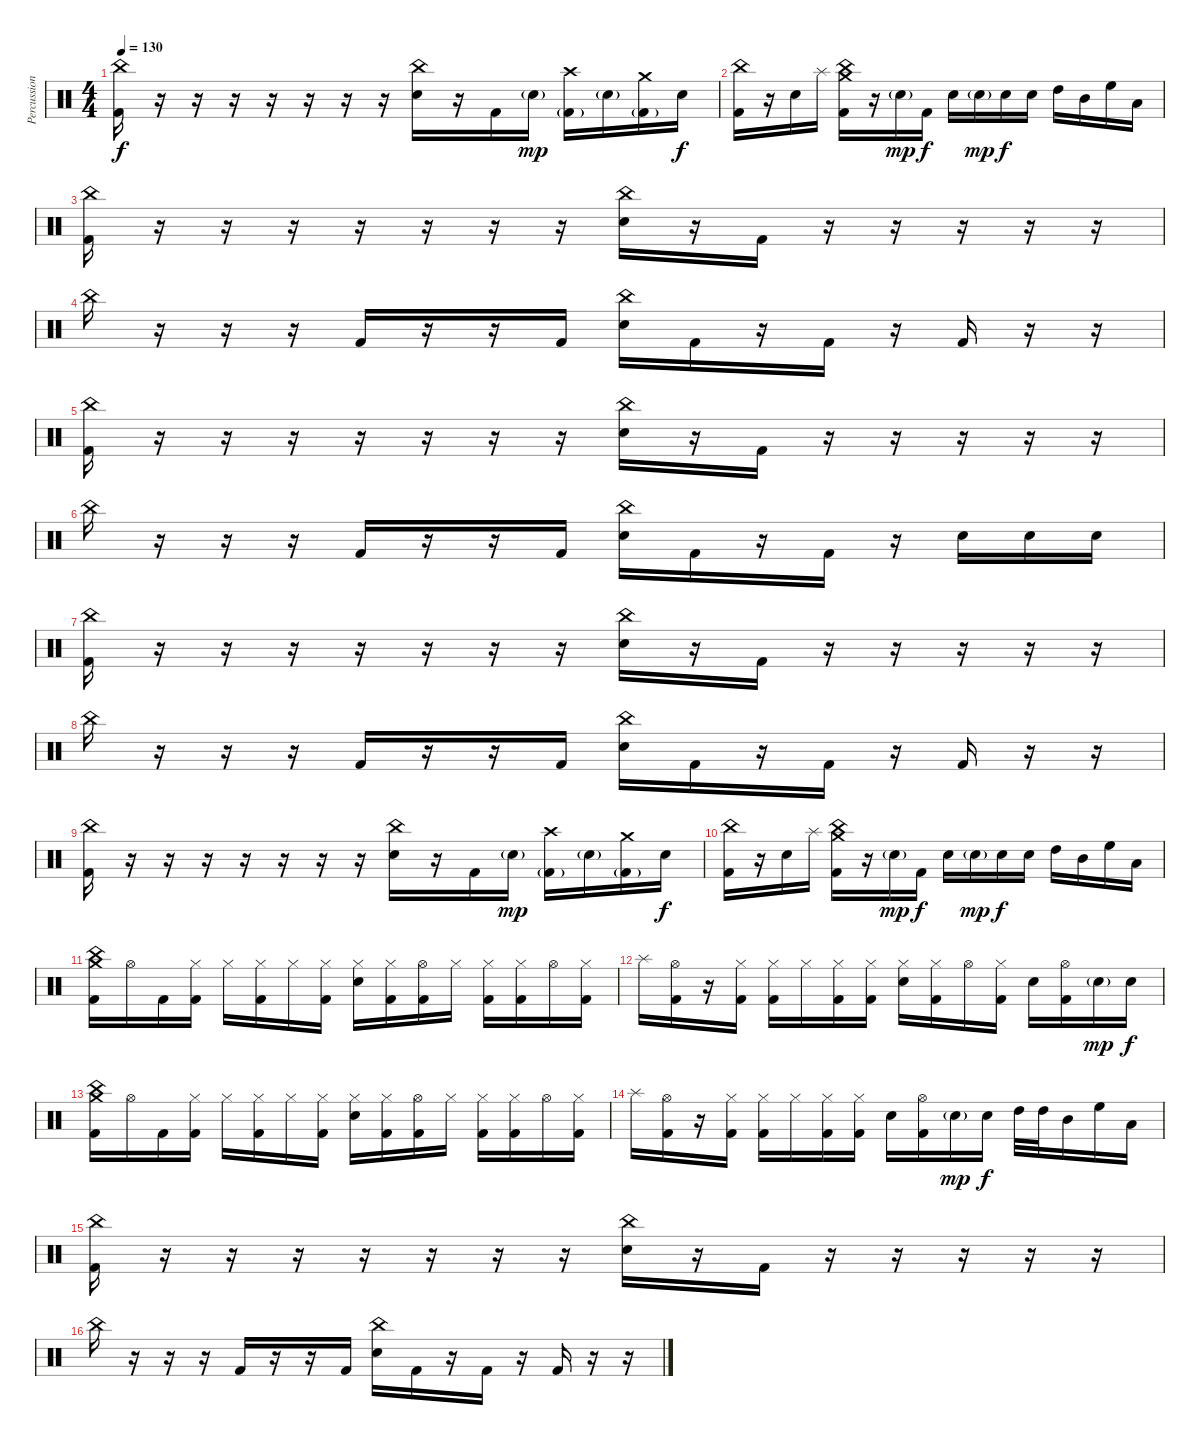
\track ("Percussion" "Percussion") {instrument percussion}
\staff {score}
\articulation defaults
\ts (4 4)
\tempo 130
\clef neutral
\ks c
("China (hit)" "Kick (hit) 2").16{dy f} r.16 r.16 r.16 r.16 r.16 r.16 r.16 ("China (hit)" "Snare (hit) 2").16 r.16 "Kick (hit) 2".16 "Snare (hit) 2"{g}.16{dy mp} ("Crash high (hit)" "Kick (hit) 2"{g}).16 "Snare (hit) 2"{g}.16 ("Crash medium (hit)" "Kick (hit) 2"{g}).16 "Snare (hit) 2".16{dy f} |
("China (hit)" "Kick (hit) 2").16 r.16 "Snare (hit) 2".16 "Splash (hit)".16 ("Crash medium (hit)" "China (hit)" "Kick (hit) 2").16 r.16 "Snare (hit) 2"{g}.16{dy mp} "Kick (hit) 2".16{dy f} "Snare (hit) 2".16 "Snare (hit) 2"{g}.16{dy mp} "Snare (hit) 2".16{dy f} "Snare (hit) 2".16 "High Tom (hit)".16 "Mid Tom (hit)".16 "High Floor Tom (hit)".16 "Low Tom (hit)".16 |
("China (hit)" "Kick (hit) 2").16 r.16 r.16 r.16 r.16 r.16 r.16 r.16 ("China (hit)" "Snare (hit) 2").16 r.16 "Kick (hit) 2".16 r.16 r.16 r.16 r.16 r.16 |
"China (hit)".16 r.16 r.16 r.16 "Kick (hit) 2".16 r.16 r.16 "Kick (hit) 2".16 ("China (hit)" "Snare (hit) 2").16 "Kick (hit) 2".16 r.16 "Kick (hit) 2".16 r.16 "Kick (hit) 2".16 r.16 r.16 |
("China (hit)" "Kick (hit) 2").16 r.16 r.16 r.16 r.16 r.16 r.16 r.16 ("China (hit)" "Snare (hit) 2").16 r.16 "Kick (hit) 2".16 r.16 r.16 r.16 r.16 r.16 |
"China (hit)".16 r.16 r.16 r.16 "Kick (hit) 2".16 r.16 r.16 "Kick (hit) 2".16 ("China (hit)" "Snare (hit) 2").16 "Kick (hit) 2".16 r.16 "Kick (hit) 2".16 r.16 "Snare (hit) 2".16 "Snare (hit) 2".16 "Snare (hit) 2".16 |
("China (hit)" "Kick (hit) 2").16 r.16 r.16 r.16 r.16 r.16 r.16 r.16 ("China (hit)" "Snare (hit) 2").16 r.16 "Kick (hit) 2".16 r.16 r.16 r.16 r.16 r.16 |
"China (hit)".16 r.16 r.16 r.16 "Kick (hit) 2".16 r.16 r.16 "Kick (hit) 2".16 ("China (hit)" "Snare (hit) 2").16 "Kick (hit) 2".16 r.16 "Kick (hit) 2".16 r.16 "Kick (hit) 2".16 r.16 r.16 |
("China (hit)" "Kick (hit) 2").16 r.16 r.16 r.16 r.16 r.16 r.16 r.16 ("China (hit)" "Snare (hit) 2").16 r.16 "Kick (hit) 2".16 "Snare (hit) 2"{g}.16{dy mp} ("Crash high (hit)" "Kick (hit) 2"{g}).16 "Snare (hit) 2"{g}.16 ("Crash medium (hit)" "Kick (hit) 2"{g}).16 "Snare (hit) 2".16{dy f} |
("China (hit)" "Kick (hit) 2").16 r.16 "Snare (hit) 2".16 "Splash (hit)".16 ("Crash medium (hit)" "China (hit)" "Kick (hit) 2").16 r.16 "Snare (hit) 2"{g}.16{dy mp} "Kick (hit) 2".16{dy f} "Snare (hit) 2".16 "Snare (hit) 2"{g}.16{dy mp} "Snare (hit) 2".16{dy f} "Snare (hit) 2".16 "High Tom (hit)".16 "Mid Tom (hit)".16 "High Floor Tom (hit)".16 "Low Tom (hit)".16 |
("Crash medium (hit)" "China (hit)" "Kick (hit) 2").16 "Hi-Hat (open)".16 "Kick (hit) 2".16 ("Hi-Hat (closed)" "Kick (hit) 2").16 "Hi-Hat (closed)".16 ("Hi-Hat (closed)" "Kick (hit) 2").16 "Hi-Hat (closed)".16 ("Hi-Hat (closed)" "Kick (hit) 2").16 ("Hi-Hat (closed)" "Snare (hit) 2").16 ("Hi-Hat (closed)" "Kick (hit) 2").16 ("Hi-Hat (open)" "Kick (hit) 2").16 "Hi-Hat (closed)".16 ("Hi-Hat (closed)" "Kick (hit) 2").16 ("Hi-Hat (closed)" "Kick (hit) 2").16 "Hi-Hat (open)".16 ("Hi-Hat (closed)" "Kick (hit) 2").16 |
"Splash (hit)".16 ("Hi-Hat (open)" "Kick (hit) 2").16 r.16 ("Hi-Hat (closed)" "Kick (hit) 2").16 ("Hi-Hat (closed)" "Kick (hit) 2").16 "Hi-Hat (closed)".16 ("Hi-Hat (closed)" "Kick (hit) 2").16 ("Hi-Hat (closed)" "Kick (hit) 2").16 ("Hi-Hat (closed)" "Snare (hit) 2").16 ("Hi-Hat (closed)" "Kick (hit) 2").16 "Hi-Hat (open)".16 ("Hi-Hat (closed)" "Kick (hit) 2").16 "Snare (hit) 2".16 ("Hi-Hat (open)" "Kick (hit) 2").16 "Snare (hit) 2"{g}.16{dy mp} "Snare (hit) 2".16{dy f} |
("Crash medium (hit)" "China (hit)" "Kick (hit) 2").16 "Hi-Hat (open)".16 "Kick (hit) 2".16 ("Hi-Hat (closed)" "Kick (hit) 2").16 "Hi-Hat (closed)".16 ("Hi-Hat (closed)" "Kick (hit) 2").16 "Hi-Hat (closed)".16 ("Hi-Hat (closed)" "Kick (hit) 2").16 ("Hi-Hat (closed)" "Snare (hit) 2").16 ("Hi-Hat (closed)" "Kick (hit) 2").16 ("Hi-Hat (open)" "Kick (hit) 2").16 "Hi-Hat (closed)".16 ("Hi-Hat (closed)" "Kick (hit) 2").16 ("Hi-Hat (closed)" "Kick (hit) 2").16 "Hi-Hat (open)".16 ("Hi-Hat (closed)" "Kick (hit) 2").16 |
"Splash (hit)".16 ("Hi-Hat (open)" "Kick (hit) 2").16 r.16 ("Hi-Hat (closed)" "Kick (hit) 2").16 ("Hi-Hat (closed)" "Kick (hit) 2").16 "Hi-Hat (closed)".16 ("Hi-Hat (closed)" "Kick (hit) 2").16 ("Hi-Hat (closed)" "Kick (hit) 2").16 "Snare (hit) 2".16 ("Hi-Hat (open)" "Kick (hit) 2").16 "Snare (hit) 2"{g}.16{dy mp} "Snare (hit) 2".16{dy f} "High Tom (hit)".32 "High Tom (hit)".32 "Mid Tom (hit)".16 "High Floor Tom (hit)".16 "Low Tom (hit)".16 |
("China (hit)" "Kick (hit) 2").16 r.16 r.16 r.16 r.16 r.16 r.16 r.16 ("China (hit)" "Snare (hit) 2").16 r.16 "Kick (hit) 2".16 r.16 r.16 r.16 r.16 r.16 |
"China (hit)".16 r.16 r.16 r.16 "Kick (hit) 2".16 r.16 r.16 "Kick (hit) 2".16 ("China (hit)" "Snare (hit) 2").16 "Kick (hit) 2".16 r.16 "Kick (hit) 2".16 r.16 "Kick (hit) 2".16 r.16 r.16
